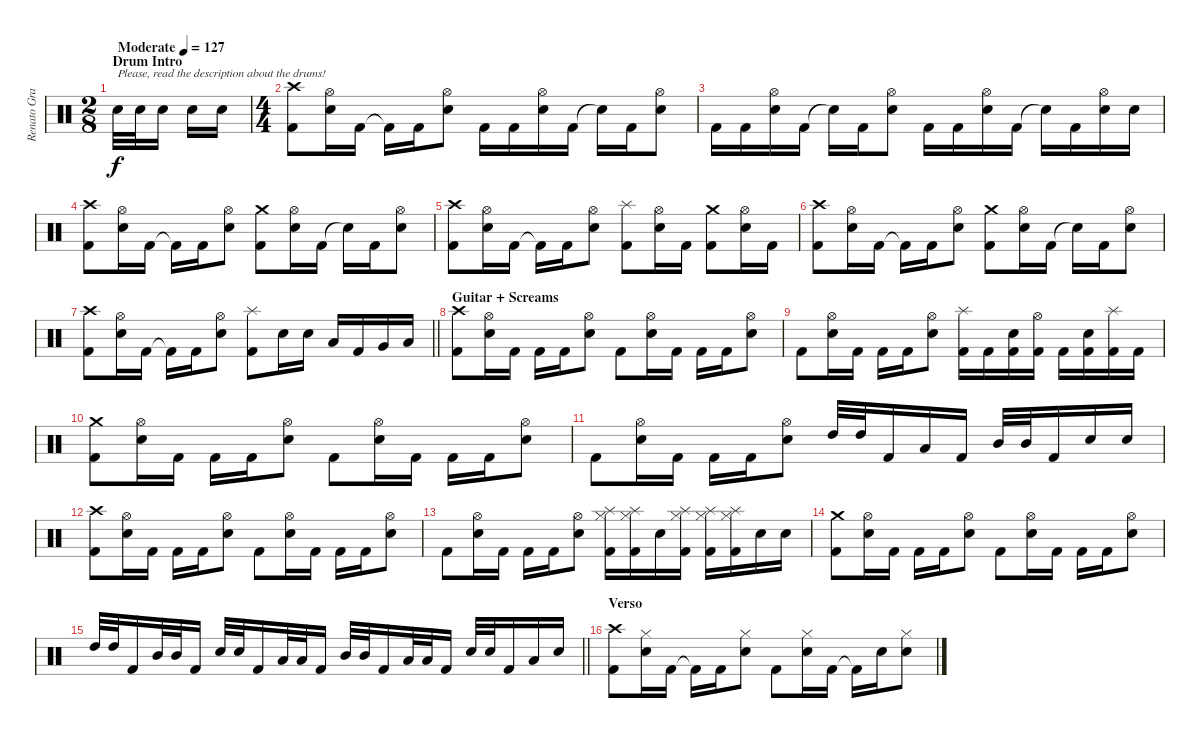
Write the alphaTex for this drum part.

\track ("Renato Graccia (drums)" "Renato Gra") {instrument percussion}
\staff {score}
\articulation defaults
\ts (2 8)
\section ("" "Drum Intro")
\tempo (127 "Moderate")
\clef neutral
\ks c "Snare (hit) 2".32{txt "Please, read the description about the drums!" dy f} "Snare (hit) 2".32 "Snare (hit) 2".16 "Snare (hit) 2".16 "Snare (hit) 2".16
|
\ts (4 4)
("Crash high (hit)" "Kick (hit) 2").8 ("Hi-Hat (open)" "Snare (hit) 2").16 "Kick (hit) 2".16 "Kick (hit) 2"{t}.16 "Kick (hit) 2".16 ("Hi-Hat (open)" "Snare (hit) 2").8 "Kick (hit) 2".16 "Kick (hit) 2".16 ("Hi-Hat (open)" "Snare (hit) 2").16 "Kick (hit) 2".16 "Snare (hit)"{t}.16 "Kick (hit) 2".16 ("Hi-Hat (open)" "Snare (hit) 2").8 |
"Kick (hit) 2".16 "Kick (hit) 2".16 ("Hi-Hat (open)" "Snare (hit) 2").16 "Kick (hit) 2".16 "Snare (hit)"{t}.16 "Kick (hit) 2".16 ("Hi-Hat (open)" "Snare (hit) 2").8 "Kick (hit) 2".16 "Kick (hit) 2".16 ("Hi-Hat (open)" "Snare (hit) 2").16 "Kick (hit) 2".16 "Snare (hit)"{t}.16 "Kick (hit) 2".16 ("Hi-Hat (open)" "Snare (hit) 2").16 "Snare (hit) 2".16 |
("Crash high (hit)" "Kick (hit) 2").8 ("Hi-Hat (open)" "Snare (hit) 2").16 "Kick (hit) 2".16 "Kick (hit) 2"{t}.16 "Kick (hit) 2".16 ("Hi-Hat (open)" "Snare (hit) 2").8 ("Crash medium (hit)" "Kick (hit) 2").8 ("Hi-Hat (open)" "Snare (hit) 2").16 "Kick (hit) 2".16 "Snare (hit)"{t}.16 "Kick (hit) 2".16 ("Hi-Hat (open)" "Snare (hit) 2").8 |
("Crash high (hit)" "Kick (hit) 2").8 ("Hi-Hat (open)" "Snare (hit) 2").16 "Kick (hit) 2".16 "Kick (hit) 2"{t}.16 "Kick (hit) 2".16 ("Hi-Hat (open)" "Snare (hit) 2").8 ("Splash (hit)" "Kick (hit) 2").8 ("Hi-Hat (open)" "Snare (hit) 2").16 "Kick (hit) 2".16 ("Crash medium (hit)" "Kick (hit) 2").8 ("Hi-Hat (open)" "Snare (hit) 2").16 "Kick (hit) 2".16 |
("Crash high (hit)" "Kick (hit) 2").8 ("Hi-Hat (open)" "Snare (hit) 2").16 "Kick (hit) 2".16 "Kick (hit) 2"{t}.16 "Kick (hit) 2".16 ("Hi-Hat (open)" "Snare (hit) 2").8 ("Crash medium (hit)" "Kick (hit) 2").8 ("Hi-Hat (open)" "Snare (hit) 2").16 "Kick (hit) 2".16 "Snare (hit)"{t}.16 "Kick (hit) 2".16 ("Hi-Hat (open)" "Snare (hit) 2").8 |
\barLineRight lightlight
("Crash high (hit)" "Kick (hit) 2").8 ("Hi-Hat (open)" "Snare (hit) 2").16 "Kick (hit) 2".16 "Kick (hit) 2"{t}.16 "Kick (hit) 2".16 ("Hi-Hat (open)" "Snare (hit) 2").8 ("Splash (hit)" "Kick (hit) 2").8 "Snare (hit) 2".16 "Snare (hit) 2".16 "Low Tom (hit)".16 "Kick (hit) 2".16 "Very Low Tom (hit)".16 "Low Floor Tom (hit)".16 |
\section ("" "Guitar + Screams")
("Crash high (hit)" "Kick (hit) 2").8 ("Hi-Hat (open)" "Snare (hit) 2").16 "Kick (hit) 2".16 "Kick (hit) 2".16 "Kick (hit) 2".16 ("Hi-Hat (open)" "Snare (hit) 2").8 "Kick (hit) 2".8 ("Hi-Hat (open)" "Snare (hit) 2").16 "Kick (hit) 2".16 "Kick (hit) 2".16 "Kick (hit) 2".16 ("Hi-Hat (open)" "Snare (hit) 2").8 |
"Kick (hit) 2".8 ("Hi-Hat (open)" "Snare (hit) 2").16 "Kick (hit) 2".16 "Kick (hit) 2".16 "Kick (hit) 2".16 ("Hi-Hat (open)" "Snare (hit) 2").8 ("Splash (hit)" "Kick (hit) 2").16 "Kick (hit) 2".16 ("Snare (hit) 2" "Kick (hit) 2").16 ("Hi-Hat (open)" "Kick (hit) 2").16 "Kick (hit) 2".16 ("Snare (hit) 2" "Kick (hit) 2").16 ("Splash (hit)" "Kick (hit) 2").16 "Kick (hit) 2".16 |
("Crash medium (hit)" "Kick (hit) 2").8 ("Hi-Hat (open)" "Snare (hit) 2").16 "Kick (hit) 2".16 "Kick (hit) 2".16 "Kick (hit) 2".16 ("Hi-Hat (open)" "Snare (hit) 2").8 "Kick (hit) 2".8 ("Hi-Hat (open)" "Snare (hit) 2").16 "Kick (hit) 2".16 "Kick (hit) 2".16 "Kick (hit) 2".16 ("Hi-Hat (open)" "Snare (hit) 2").8 |
"Kick (hit) 2".8 ("Hi-Hat (open)" "Snare (hit) 2").16 "Kick (hit) 2".16 "Kick (hit) 2".16 "Kick (hit) 2".16 ("Hi-Hat (open)" "Snare (hit) 2").8 "High Tom (hit)".32 "High Tom (hit)".32 "Kick (hit) 2".16 "Low Floor Tom (hit)".16 "Kick (hit) 2".16 "Mid Tom (hit)".32 "Mid Tom (hit)".32 "Kick (hit) 2".16 "Snare (hit) 2".16 "Snare (hit) 2".16 |
("Crash high (hit)" "Kick (hit) 2").8 ("Hi-Hat (open)" "Snare (hit) 2").16 "Kick (hit) 2".16 "Kick (hit) 2".16 "Kick (hit) 2".16 ("Hi-Hat (open)" "Snare (hit) 2").8 "Kick (hit) 2".8 ("Hi-Hat (open)" "Snare (hit) 2").16 "Kick (hit) 2".16 "Kick (hit) 2".16 "Kick (hit) 2".16 ("Hi-Hat (open)" "Snare (hit) 2").8 |
"Kick (hit) 2".8 ("Hi-Hat (open)" "Snare (hit) 2").16 "Kick (hit) 2".16 "Kick (hit) 2".16 "Kick (hit) 2".16 ("Hi-Hat (open)" "Snare (hit) 2").8 ("Splash (hit)" "Hi-Hat (closed)" "Kick (hit) 2").16 ("Splash (hit)" "Hi-Hat (closed)" "Kick (hit) 2").16 "Snare (hit) 2".16 ("Splash (hit)" "Hi-Hat (closed)" "Kick (hit) 2").16 ("Splash (hit)" "Hi-Hat (closed)" "Kick (hit) 2").16 ("Splash (hit)" "Hi-Hat (closed)" "Kick (hit) 2").16 "Snare (hit) 2".16 "Snare (hit) 2".16 |
("Crash medium (hit)" "Kick (hit) 2").8 ("Hi-Hat (open)" "Snare (hit) 2").16 "Kick (hit) 2".16 "Kick (hit) 2".16 "Kick (hit) 2".16 ("Hi-Hat (open)" "Snare (hit) 2").8 "Kick (hit) 2".8 ("Hi-Hat (open)" "Snare (hit) 2").16 "Kick (hit) 2".16 "Kick (hit) 2".16 "Kick (hit) 2".16 ("Hi-Hat (open)" "Snare (hit) 2").8 |
\barLineRight lightlight "High Tom (hit)".32 "High Tom (hit)".32 "Kick (hit) 2".16 "Mid Tom (hit)".32 "Mid Tom (hit)".32 "Kick (hit) 2".16 "Snare (hit) 2".32 "Snare (hit) 2".32 "Kick (hit) 2".16 "Low Floor Tom (hit)".32 "Low Floor Tom (hit)".32 "Kick (hit) 2".16 "Mid Tom (hit)".32 "Mid Tom (hit)".32 "Kick (hit) 2".16 "Low Tom (hit)".32 "Low Tom (hit)".32 "Kick (hit) 2".16 "Snare (hit) 2".32 "Snare (hit) 2".32 "Kick (hit) 2".16 "Low Floor Tom (hit)".16 "Snare (hit) 2".16
|
\section ("" "Verso")
("Crash high (hit)" "Kick (hit) 2").8 ("Hi-Hat (closed)" "Snare (hit) 2").16 "Kick (hit) 2".16 "Kick (hit) 2"{t}.16 "Kick (hit) 2".16 ("Hi-Hat (closed)" "Snare (hit) 2").8 "Kick (hit) 2".8 ("Hi-Hat (closed)" "Snare (hit) 2").16 "Kick (hit) 2".16 "Kick (hit) 2"{t}.16 "Snare (hit) 2".16 ("Hi-Hat (closed)" "Snare (hit) 2").8
